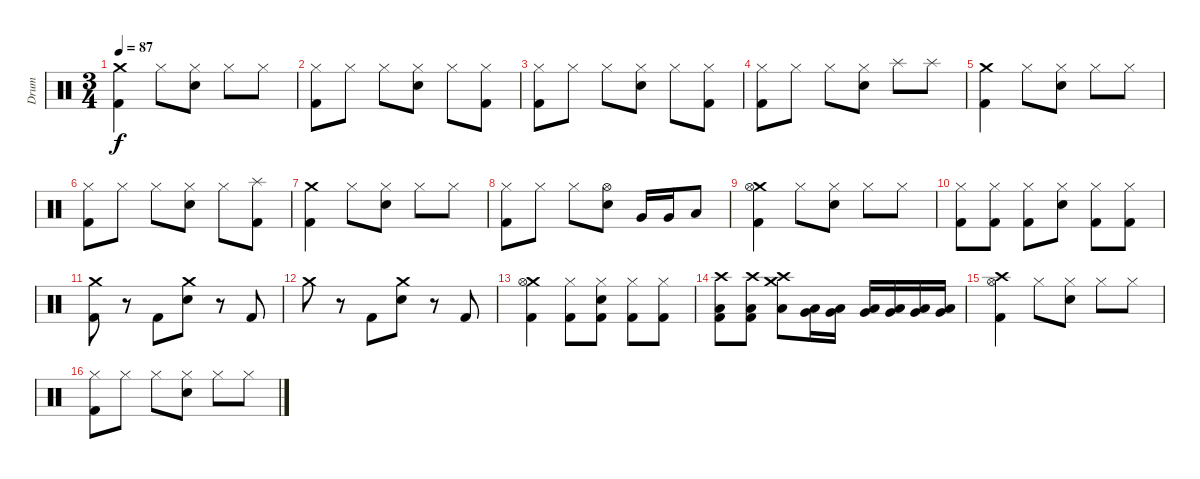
\track ("Drum" "Drum") {instrument percussion}
\staff {score}
\articulation defaults
\ts (3 4)
\tempo 87
\clef neutral
\ks c
("Crash medium (hit)" "Kick (hit) 2").4{dy f} "Hi-Hat (closed)".8 ("Hi-Hat (closed)" "Electric Snare (hit)").8 "Hi-Hat (closed)".8 "Hi-Hat (closed)".8 |
("Hi-Hat (closed)" "Kick (hit) 2").8 "Hi-Hat (closed)".8 "Hi-Hat (closed)".8 ("Hi-Hat (closed)" "Electric Snare (hit)").8 "Hi-Hat (closed)".8 ("Hi-Hat (closed)" "Kick (hit) 2").8 |
("Hi-Hat (closed)" "Kick (hit) 2").8 "Hi-Hat (closed)".8 "Hi-Hat (closed)".8 ("Hi-Hat (closed)" "Electric Snare (hit)").8 "Hi-Hat (closed)".8 ("Hi-Hat (closed)" "Kick (hit) 2").8 |
("Hi-Hat (closed)" "Kick (hit) 2").8 "Hi-Hat (closed)".8 "Hi-Hat (closed)".8 ("Hi-Hat (closed)" "Electric Snare (hit)").8 "Splash (hit)".8 "Splash (hit)".8 |
("Crash medium (hit)" "Kick (hit) 2").4 "Hi-Hat (closed)".8 ("Hi-Hat (closed)" "Electric Snare (hit)").8 "Hi-Hat (closed)".8 "Hi-Hat (closed)".8 |
("Hi-Hat (closed)" "Kick (hit) 2").8 "Hi-Hat (closed)".8 "Hi-Hat (closed)".8 ("Hi-Hat (closed)" "Electric Snare (hit)").8 "Hi-Hat (closed)".8 ("Splash (hit)" "Kick (hit) 2").8 |
("Crash medium (hit)" "Kick (hit) 2").4 "Hi-Hat (closed)".8 ("Hi-Hat (closed)" "Electric Snare (hit)").8 "Hi-Hat (closed)".8 "Hi-Hat (closed)".8 |
("Hi-Hat (closed)" "Kick (hit) 2").8 "Hi-Hat (closed)".8 "Hi-Hat (closed)".8 ("Hi-Hat (open)" "Electric Snare (hit)").8 "Very Low Tom (hit)".16 "Very Low Tom (hit)".16 "Low Floor Tom (hit)".8 |
("Crash medium (hit)" "Hi-Hat (open)" "Kick (hit) 2").4 "Hi-Hat (closed)".8 ("Hi-Hat (closed)" "Electric Snare (hit)").8 "Hi-Hat (closed)".8 "Hi-Hat (closed)".8 |
("Hi-Hat (closed)" "Kick (hit) 2").8 ("Hi-Hat (closed)" "Kick (hit) 2").8 ("Hi-Hat (closed)" "Kick (hit) 2").8 ("Hi-Hat (closed)" "Electric Snare (hit)").8 ("Hi-Hat (closed)" "Kick (hit) 2").8 ("Hi-Hat (closed)" "Kick (hit) 2").8 |
("Crash medium (hit)" "Kick (hit) 2").8 r.8 "Kick (hit) 2".8 ("Crash medium (hit)" "Electric Snare (hit)").8 r.8 "Kick (hit) 2".8 |
"Crash medium (hit)".8 r.8 "Kick (hit) 2".8 ("Crash medium (hit)" "Electric Snare (hit)").8 r.8 "Kick (hit) 2".8 |
("Crash medium (hit)" "Hi-Hat (open)" "Kick (hit) 2").4 ("Hi-Hat (closed)" "Kick (hit) 2").8 ("Hi-Hat (closed)" "Electric Snare (hit)" "Kick (hit) 2").8 ("Hi-Hat (closed)" "Kick (hit) 2").8 ("Hi-Hat (closed)" "Kick (hit) 2").8 |
("Crash high (hit)" "Low Floor Tom (hit)" "Kick (hit) 2").8 ("Crash high (hit)" "Low Floor Tom (hit)" "Kick (hit) 2").8 ("Crash medium (hit)" "Crash high (hit)" "Low Floor Tom (hit)").8 ("Very Low Tom (hit)" "Low Floor Tom (hit)").16 ("Very Low Tom (hit)" "Low Floor Tom (hit)").16 ("Very Low Tom (hit)" "Low Floor Tom (hit)").16 ("Very Low Tom (hit)" "Low Floor Tom (hit)").16 ("Very Low Tom (hit)" "Low Floor Tom (hit)").16 ("Very Low Tom (hit)" "Low Floor Tom (hit)").16 |
("Crash high (hit)" "Hi-Hat (open)" "Kick (hit) 2").4 "Hi-Hat (closed)".8 ("Hi-Hat (closed)" "Electric Snare (hit)").8 "Hi-Hat (closed)".8 "Hi-Hat (closed)".8 |
("Hi-Hat (closed)" "Kick (hit) 2").8 "Hi-Hat (closed)".8 "Hi-Hat (closed)".8 ("Hi-Hat (closed)" "Electric Snare (hit)").8 "Hi-Hat (closed)".8 "Hi-Hat (closed)".8
